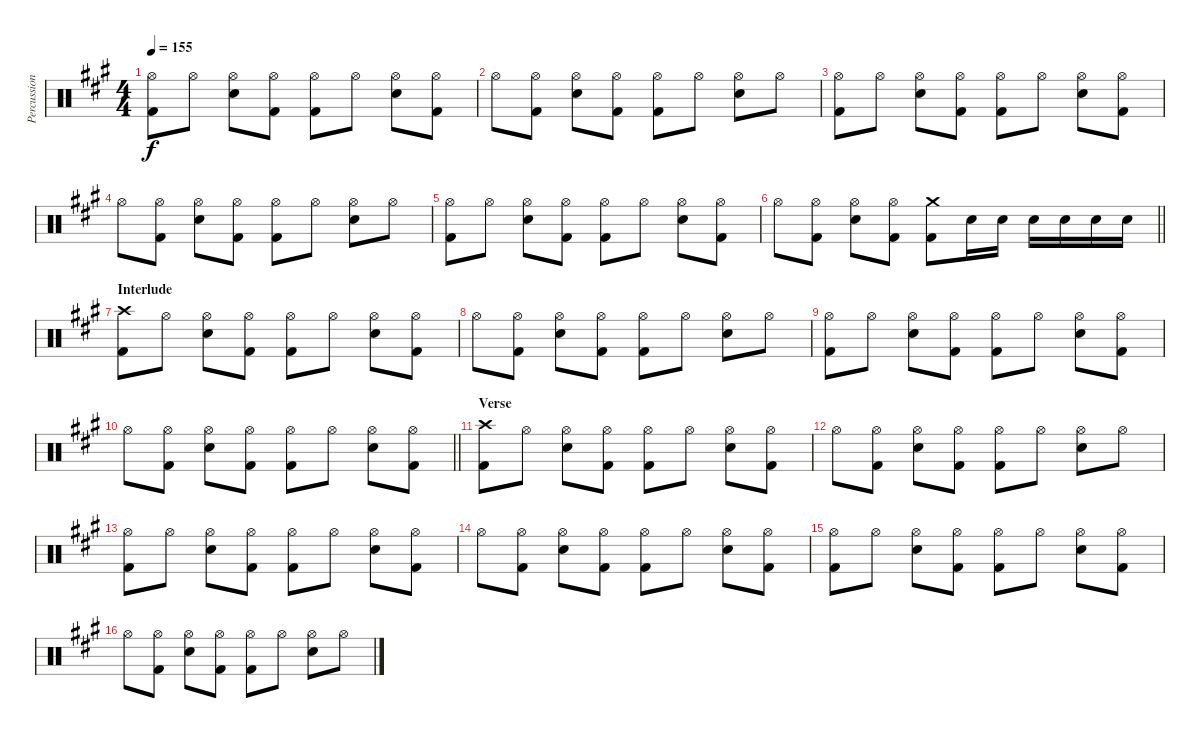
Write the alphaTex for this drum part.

\track ("Percussion" "Percussion") {instrument percussion}
\staff {score}
\articulation defaults
\ts (4 4)
\tempo 155
\clef neutral
\ks a
("Hi-Hat (open)" "Kick (hit) 2").8{dy f} "Hi-Hat (open)".8 ("Hi-Hat (open)" "Electric Snare (hit)").8 ("Hi-Hat (open)" "Kick (hit) 2").8 ("Hi-Hat (open)" "Kick (hit) 2").8 "Hi-Hat (open)".8 ("Hi-Hat (open)" "Electric Snare (hit)").8 ("Hi-Hat (open)" "Kick (hit) 2").8 |
"Hi-Hat (open)".8 ("Hi-Hat (open)" "Kick (hit) 2").8 ("Hi-Hat (open)" "Electric Snare (hit)").8 ("Hi-Hat (open)" "Kick (hit) 2").8 ("Hi-Hat (open)" "Kick (hit) 2").8 "Hi-Hat (open)".8 ("Hi-Hat (open)" "Electric Snare (hit)").8 "Hi-Hat (open)".8 |
("Hi-Hat (open)" "Kick (hit) 2").8 "Hi-Hat (open)".8 ("Hi-Hat (open)" "Electric Snare (hit)").8 ("Hi-Hat (open)" "Kick (hit) 2").8 ("Hi-Hat (open)" "Kick (hit) 2").8 "Hi-Hat (open)".8 ("Hi-Hat (open)" "Electric Snare (hit)").8 ("Hi-Hat (open)" "Kick (hit) 2").8 |
"Hi-Hat (open)".8 ("Hi-Hat (open)" "Kick (hit) 2").8 ("Hi-Hat (open)" "Electric Snare (hit)").8 ("Hi-Hat (open)" "Kick (hit) 2").8 ("Hi-Hat (open)" "Kick (hit) 2").8 "Hi-Hat (open)".8 ("Hi-Hat (open)" "Electric Snare (hit)").8 "Hi-Hat (open)".8 |
("Hi-Hat (open)" "Kick (hit) 2").8 "Hi-Hat (open)".8 ("Hi-Hat (open)" "Snare (hit) 2").8 ("Hi-Hat (open)" "Kick (hit) 2").8 ("Hi-Hat (open)" "Kick (hit) 2").8 "Hi-Hat (open)".8 ("Hi-Hat (open)" "Snare (hit) 2").8 ("Hi-Hat (open)" "Kick (hit) 2").8 |
\barLineRight lightlight "Hi-Hat (open)".8
("Hi-Hat (open)" "Kick (hit) 2").8 ("Hi-Hat (open)" "Snare (hit) 2").8 ("Hi-Hat (open)" "Kick (hit) 2").8 ("Crash medium (hit)" "Kick (hit) 2").8 "Electric Snare (hit)".16 "Electric Snare (hit)".16 "Electric Snare (hit)".16 "Electric Snare (hit)".16 "Electric Snare (hit)".16 "Electric Snare (hit)".16 |
\section ("" "Interlude")
("Crash high (hit)" "Kick (hit) 2").8 "Hi-Hat (open)".8 ("Hi-Hat (open)" "Electric Snare (hit)").8 ("Hi-Hat (open)" "Kick (hit) 2").8 ("Hi-Hat (open)" "Kick (hit) 2").8 "Hi-Hat (open)".8 ("Hi-Hat (open)" "Electric Snare (hit)").8 ("Hi-Hat (open)" "Kick (hit) 2").8 |
"Hi-Hat (open)".8 ("Hi-Hat (open)" "Kick (hit) 2").8 ("Hi-Hat (open)" "Electric Snare (hit)").8 ("Hi-Hat (open)" "Kick (hit) 2").8 ("Hi-Hat (open)" "Kick (hit) 2").8 "Hi-Hat (open)".8 ("Hi-Hat (open)" "Electric Snare (hit)").8 "Hi-Hat (open)".8 |
("Hi-Hat (open)" "Kick (hit) 2").8 "Hi-Hat (open)".8 ("Hi-Hat (open)" "Electric Snare (hit)").8 ("Hi-Hat (open)" "Kick (hit) 2").8 ("Hi-Hat (open)" "Kick (hit) 2").8 "Hi-Hat (open)".8 ("Hi-Hat (open)" "Electric Snare (hit)").8 ("Hi-Hat (open)" "Kick (hit) 2").8 |
\barLineRight lightlight "Hi-Hat (open)".8
("Hi-Hat (open)" "Kick (hit) 2").8 ("Hi-Hat (open)" "Electric Snare (hit)").8 ("Hi-Hat (open)" "Kick (hit) 2").8 ("Hi-Hat (open)" "Kick (hit) 2").8 "Hi-Hat (open)".8 ("Hi-Hat (open)" "Electric Snare (hit)").8 ("Hi-Hat (open)" "Kick (hit) 2").8 |
\section ("" "Verse")
("Crash high (hit)" "Kick (hit) 2").8 "Hi-Hat (open)".8 ("Hi-Hat (open)" "Electric Snare (hit)").8 ("Hi-Hat (open)" "Kick (hit) 2").8 ("Hi-Hat (open)" "Kick (hit) 2").8 "Hi-Hat (open)".8 ("Hi-Hat (open)" "Electric Snare (hit)").8 ("Hi-Hat (open)" "Kick (hit) 2").8 |
"Hi-Hat (open)".8 ("Hi-Hat (open)" "Kick (hit) 2").8 ("Hi-Hat (open)" "Electric Snare (hit)").8 ("Hi-Hat (open)" "Kick (hit) 2").8 ("Hi-Hat (open)" "Kick (hit) 2").8 "Hi-Hat (open)".8 ("Hi-Hat (open)" "Electric Snare (hit)").8 "Hi-Hat (open)".8 |
("Hi-Hat (open)" "Kick (hit) 2").8 "Hi-Hat (open)".8 ("Hi-Hat (open)" "Electric Snare (hit)").8 ("Hi-Hat (open)" "Kick (hit) 2").8 ("Hi-Hat (open)" "Kick (hit) 2").8 "Hi-Hat (open)".8 ("Hi-Hat (open)" "Electric Snare (hit)").8 ("Hi-Hat (open)" "Kick (hit) 2").8 |
"Hi-Hat (open)".8 ("Hi-Hat (open)" "Kick (hit) 2").8 ("Hi-Hat (open)" "Electric Snare (hit)").8 ("Hi-Hat (open)" "Kick (hit) 2").8 ("Hi-Hat (open)" "Kick (hit) 2").8 "Hi-Hat (open)".8 ("Hi-Hat (open)" "Electric Snare (hit)").8 ("Hi-Hat (open)" "Kick (hit) 2").8 |
("Hi-Hat (open)" "Kick (hit) 2").8 "Hi-Hat (open)".8 ("Hi-Hat (open)" "Electric Snare (hit)").8 ("Hi-Hat (open)" "Kick (hit) 2").8 ("Hi-Hat (open)" "Kick (hit) 2").8 "Hi-Hat (open)".8 ("Hi-Hat (open)" "Electric Snare (hit)").8 ("Hi-Hat (open)" "Kick (hit) 2").8 |
"Hi-Hat (open)".8 ("Hi-Hat (open)" "Kick (hit) 2").8 ("Hi-Hat (open)" "Electric Snare (hit)").8 ("Hi-Hat (open)" "Kick (hit) 2").8 ("Hi-Hat (open)" "Kick (hit) 2").8 "Hi-Hat (open)".8 ("Hi-Hat (open)" "Electric Snare (hit)").8 "Hi-Hat (open)".8
